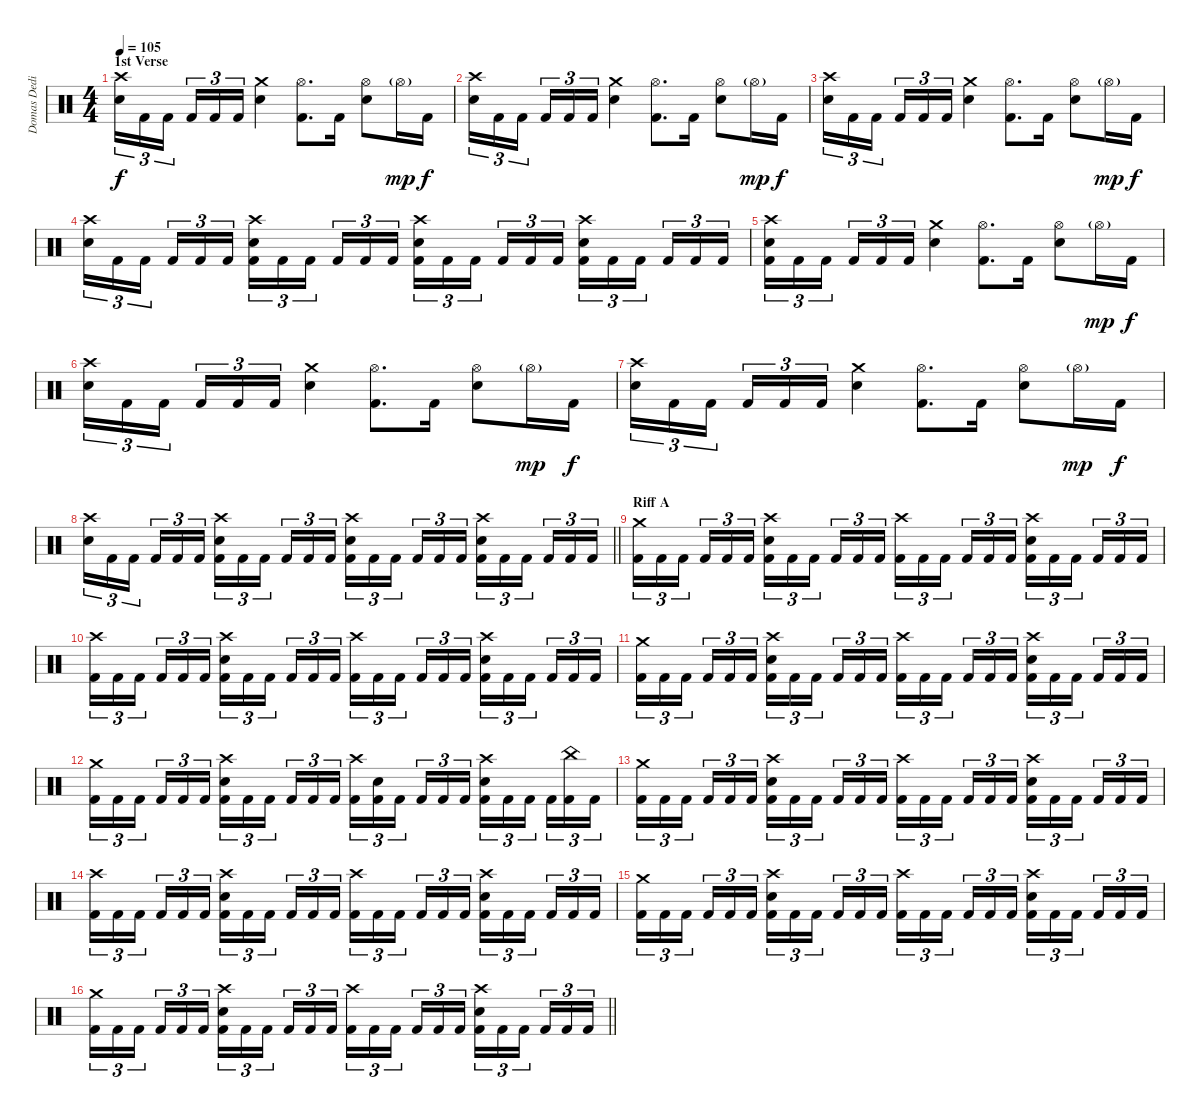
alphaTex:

\track ("Domas Dedinas" "Domas Dedi") {instrument percussion}
\staff {score}
\articulation defaults
\ts (4 4)
\section ("" "1st Verse")
\tempo 105
\clef neutral
\ks c
("Crash high (hit)" "Snare (hit) 2").16{tu (3 2) dy f} "Kick (hit) 2".16{tu (3 2)} "Kick (hit) 2".16{tu (3 2) beam splitsecondary} "Kick (hit) 2".16{tu (3 2)} "Kick (hit) 2".16{tu (3 2)} "Kick (hit) 2".16{tu (3 2)} ("Crash medium (hit)" "Snare (hit) 2").4 ("Hi-Hat (open)" "Kick (hit) 2").8{d} "Kick (hit) 2".16 ("Hi-Hat (open)" "Snare (hit) 2").8 "Hi-Hat (open)"{g}.16{dy mp} "Kick (hit) 2".16{dy f} |
("Crash high (hit)" "Snare (hit) 2").16{tu (3 2)} "Kick (hit) 2".16{tu (3 2)} "Kick (hit) 2".16{tu (3 2) beam splitsecondary} "Kick (hit) 2".16{tu (3 2)} "Kick (hit) 2".16{tu (3 2)} "Kick (hit) 2".16{tu (3 2)} ("Crash medium (hit)" "Snare (hit) 2").4 ("Hi-Hat (open)" "Kick (hit) 2").8{d} "Kick (hit) 2".16 ("Hi-Hat (open)" "Snare (hit) 2").8 "Hi-Hat (open)"{g}.16{dy mp} "Kick (hit) 2".16{dy f} |
("Crash high (hit)" "Snare (hit) 2").16{tu (3 2)} "Kick (hit) 2".16{tu (3 2)} "Kick (hit) 2".16{tu (3 2) beam splitsecondary} "Kick (hit) 2".16{tu (3 2)} "Kick (hit) 2".16{tu (3 2)} "Kick (hit) 2".16{tu (3 2)} ("Crash medium (hit)" "Snare (hit) 2").4 ("Hi-Hat (open)" "Kick (hit) 2").8{d} "Kick (hit) 2".16 ("Hi-Hat (open)" "Snare (hit) 2").8 "Hi-Hat (open)"{g}.16{dy mp} "Kick (hit) 2".16{dy f} |
("Crash high (hit)" "Snare (hit) 2").16{tu (3 2)} "Kick (hit) 2".16{tu (3 2)} "Kick (hit) 2".16{tu (3 2) beam splitsecondary} "Kick (hit) 2".16{tu (3 2)} "Kick (hit) 2".16{tu (3 2)} "Kick (hit) 2".16{tu (3 2)} ("Crash high (hit)" "Snare (hit) 2" "Kick (hit) 2").16{tu (3 2)} "Kick (hit) 2".16{tu (3 2)} "Kick (hit) 2".16{tu (3 2) beam splitsecondary} "Kick (hit) 2".16{tu (3 2)} "Kick (hit) 2".16{tu (3 2)} "Kick (hit) 2".16{tu (3 2)} ("Crash high (hit)" "Snare (hit) 2" "Kick (hit) 2").16{tu (3 2)} "Kick (hit) 2".16{tu (3 2)} "Kick (hit) 2".16{tu (3 2) beam splitsecondary} "Kick (hit) 2".16{tu (3 2)} "Kick (hit) 2".16{tu (3 2)} "Kick (hit) 2".16{tu (3 2)} ("Crash high (hit)" "Snare (hit) 2" "Kick (hit) 2").16{tu (3 2)} "Kick (hit) 2".16{tu (3 2)} "Kick (hit) 2".16{tu (3 2) beam splitsecondary} "Kick (hit) 2".16{tu (3 2)} "Kick (hit) 2".16{tu (3 2)} "Kick (hit) 2".16{tu (3 2)} |
("Crash high (hit)" "Snare (hit) 2" "Kick (hit) 2").16{tu (3 2)} "Kick (hit) 2".16{tu (3 2)} "Kick (hit) 2".16{tu (3 2) beam splitsecondary} "Kick (hit) 2".16{tu (3 2)} "Kick (hit) 2".16{tu (3 2)} "Kick (hit) 2".16{tu (3 2)} ("Crash medium (hit)" "Snare (hit) 2").4 ("Hi-Hat (open)" "Kick (hit) 2").8{d} "Kick (hit) 2".16 ("Hi-Hat (open)" "Snare (hit) 2").8 "Hi-Hat (open)"{g}.16{dy mp} "Kick (hit) 2".16{dy f} |
("Crash high (hit)" "Snare (hit) 2").16{tu (3 2)} "Kick (hit) 2".16{tu (3 2)} "Kick (hit) 2".16{tu (3 2) beam splitsecondary} "Kick (hit) 2".16{tu (3 2)} "Kick (hit) 2".16{tu (3 2)} "Kick (hit) 2".16{tu (3 2)} ("Crash medium (hit)" "Snare (hit) 2").4 ("Hi-Hat (open)" "Kick (hit) 2").8{d} "Kick (hit) 2".16 ("Hi-Hat (open)" "Snare (hit) 2").8 "Hi-Hat (open)"{g}.16{dy mp} "Kick (hit) 2".16{dy f} |
("Crash high (hit)" "Snare (hit) 2").16{tu (3 2)} "Kick (hit) 2".16{tu (3 2)} "Kick (hit) 2".16{tu (3 2) beam splitsecondary} "Kick (hit) 2".16{tu (3 2)} "Kick (hit) 2".16{tu (3 2)} "Kick (hit) 2".16{tu (3 2)} ("Crash medium (hit)" "Snare (hit) 2").4 ("Hi-Hat (open)" "Kick (hit) 2").8{d} "Kick (hit) 2".16 ("Hi-Hat (open)" "Snare (hit) 2").8 "Hi-Hat (open)"{g}.16{dy mp} "Kick (hit) 2".16{dy f} |
\barLineRight lightlight
("Crash high (hit)" "Snare (hit) 2").16{tu (3 2)} "Kick (hit) 2".16{tu (3 2)} "Kick (hit) 2".16{tu (3 2) beam splitsecondary} "Kick (hit) 2".16{tu (3 2)} "Kick (hit) 2".16{tu (3 2)} "Kick (hit) 2".16{tu (3 2)} ("Crash high (hit)" "Snare (hit) 2" "Kick (hit) 2").16{tu (3 2)} "Kick (hit) 2".16{tu (3 2)} "Kick (hit) 2".16{tu (3 2) beam splitsecondary} "Kick (hit) 2".16{tu (3 2)} "Kick (hit) 2".16{tu (3 2)} "Kick (hit) 2".16{tu (3 2)} ("Crash high (hit)" "Snare (hit) 2" "Kick (hit) 2").16{tu (3 2)} "Kick (hit) 2".16{tu (3 2)} "Kick (hit) 2".16{tu (3 2) beam splitsecondary} "Kick (hit) 2".16{tu (3 2)} "Kick (hit) 2".16{tu (3 2)} "Kick (hit) 2".16{tu (3 2)} ("Crash high (hit)" "Snare (hit) 2" "Kick (hit) 2").16{tu (3 2)} "Kick (hit) 2".16{tu (3 2)} "Kick (hit) 2".16{tu (3 2) beam splitsecondary} "Kick (hit) 2".16{tu (3 2)} "Kick (hit) 2".16{tu (3 2)} "Kick (hit) 2".16{tu (3 2)} |
\section ("" "Riff A")
("Crash medium (hit)" "Kick (hit) 2").16{tu (3 2)} "Kick (hit) 2".16{tu (3 2)} "Kick (hit) 2".16{tu (3 2) beam splitsecondary} "Kick (hit) 2".16{tu (3 2)} "Kick (hit) 2".16{tu (3 2)} "Kick (hit) 2".16{tu (3 2)} ("Crash high (hit)" "Snare (hit) 2" "Kick (hit) 2").16{tu (3 2)} "Kick (hit) 2".16{tu (3 2)} "Kick (hit) 2".16{tu (3 2) beam splitsecondary} "Kick (hit) 2".16{tu (3 2)} "Kick (hit) 2".16{tu (3 2)} "Kick (hit) 2".16{tu (3 2)} ("Crash high (hit)" "Kick (hit) 2").16{tu (3 2)} "Kick (hit) 2".16{tu (3 2)} "Kick (hit) 2".16{tu (3 2) beam splitsecondary} "Kick (hit) 2".16{tu (3 2)} "Kick (hit) 2".16{tu (3 2)} "Kick (hit) 2".16{tu (3 2)} ("Crash high (hit)" "Snare (hit) 2" "Kick (hit) 2").16{tu (3 2)} "Kick (hit) 2".16{tu (3 2)} "Kick (hit) 2".16{tu (3 2) beam splitsecondary} "Kick (hit) 2".16{tu (3 2)} "Kick (hit) 2".16{tu (3 2)} "Kick (hit) 2".16{tu (3 2)} |
("Crash high (hit)" "Kick (hit) 2").16{tu (3 2)} "Kick (hit) 2".16{tu (3 2)} "Kick (hit) 2".16{tu (3 2) beam splitsecondary} "Kick (hit) 2".16{tu (3 2)} "Kick (hit) 2".16{tu (3 2)} "Kick (hit) 2".16{tu (3 2)} ("Crash high (hit)" "Snare (hit) 2" "Kick (hit) 2").16{tu (3 2)} "Kick (hit) 2".16{tu (3 2)} "Kick (hit) 2".16{tu (3 2) beam splitsecondary} "Kick (hit) 2".16{tu (3 2)} "Kick (hit) 2".16{tu (3 2)} "Kick (hit) 2".16{tu (3 2)} ("Crash high (hit)" "Kick (hit) 2").16{tu (3 2)} "Kick (hit) 2".16{tu (3 2)} "Kick (hit) 2".16{tu (3 2) beam splitsecondary} "Kick (hit) 2".16{tu (3 2)} "Kick (hit) 2".16{tu (3 2)} "Kick (hit) 2".16{tu (3 2)} ("Crash high (hit)" "Snare (hit) 2" "Kick (hit) 2").16{tu (3 2)} "Kick (hit) 2".16{tu (3 2)} "Kick (hit) 2".16{tu (3 2) beam splitsecondary} "Kick (hit) 2".16{tu (3 2)} "Kick (hit) 2".16{tu (3 2)} "Kick (hit) 2".16{tu (3 2)} |
("Crash medium (hit)" "Kick (hit) 2").16{tu (3 2)} "Kick (hit) 2".16{tu (3 2)} "Kick (hit) 2".16{tu (3 2) beam splitsecondary} "Kick (hit) 2".16{tu (3 2)} "Kick (hit) 2".16{tu (3 2)} "Kick (hit) 2".16{tu (3 2)} ("Crash high (hit)" "Snare (hit) 2" "Kick (hit) 2").16{tu (3 2)} "Kick (hit) 2".16{tu (3 2)} "Kick (hit) 2".16{tu (3 2) beam splitsecondary} "Kick (hit) 2".16{tu (3 2)} "Kick (hit) 2".16{tu (3 2)} "Kick (hit) 2".16{tu (3 2)} ("Crash high (hit)" "Kick (hit) 2").16{tu (3 2)} "Kick (hit) 2".16{tu (3 2)} "Kick (hit) 2".16{tu (3 2) beam splitsecondary} "Kick (hit) 2".16{tu (3 2)} "Kick (hit) 2".16{tu (3 2)} "Kick (hit) 2".16{tu (3 2)} ("Crash high (hit)" "Snare (hit) 2" "Kick (hit) 2").16{tu (3 2)} "Kick (hit) 2".16{tu (3 2)} "Kick (hit) 2".16{tu (3 2) beam splitsecondary} "Kick (hit) 2".16{tu (3 2)} "Kick (hit) 2".16{tu (3 2)} "Kick (hit) 2".16{tu (3 2)} |
("Crash medium (hit)" "Kick (hit) 2").16{tu (3 2)} "Kick (hit) 2".16{tu (3 2)} "Kick (hit) 2".16{tu (3 2) beam splitsecondary} "Kick (hit) 2".16{tu (3 2)} "Kick (hit) 2".16{tu (3 2)} "Kick (hit) 2".16{tu (3 2)} ("Crash high (hit)" "Snare (hit) 2" "Kick (hit) 2").16{tu (3 2)} "Kick (hit) 2".16{tu (3 2)} "Kick (hit) 2".16{tu (3 2) beam splitsecondary} "Kick (hit) 2".16{tu (3 2)} "Kick (hit) 2".16{tu (3 2)} "Kick (hit) 2".16{tu (3 2)} ("Crash high (hit)" "Kick (hit) 2").16{tu (3 2)} ("Snare (hit) 2" "Kick (hit) 2").16{tu (3 2)} "Kick (hit) 2".16{tu (3 2) beam splitsecondary} "Kick (hit) 2".16{tu (3 2)} "Kick (hit) 2".16{tu (3 2)} "Kick (hit) 2".16{tu (3 2)} ("Crash high (hit)" "Snare (hit) 2" "Kick (hit) 2").16{tu (3 2)} "Kick (hit) 2".16{tu (3 2)} "Kick (hit) 2".16{tu (3 2) beam splitsecondary} "Kick (hit) 2".16{tu (3 2)} ("China (hit)" "Kick (hit) 2").16{tu (3 2)} "Kick (hit) 2".16{tu (3 2)} |
("Crash medium (hit)" "Kick (hit) 2").16{tu (3 2)} "Kick (hit) 2".16{tu (3 2)} "Kick (hit) 2".16{tu (3 2) beam splitsecondary} "Kick (hit) 2".16{tu (3 2)} "Kick (hit) 2".16{tu (3 2)} "Kick (hit) 2".16{tu (3 2)} ("Crash high (hit)" "Snare (hit) 2" "Kick (hit) 2").16{tu (3 2)} "Kick (hit) 2".16{tu (3 2)} "Kick (hit) 2".16{tu (3 2) beam splitsecondary} "Kick (hit) 2".16{tu (3 2)} "Kick (hit) 2".16{tu (3 2)} "Kick (hit) 2".16{tu (3 2)} ("Crash high (hit)" "Kick (hit) 2").16{tu (3 2)} "Kick (hit) 2".16{tu (3 2)} "Kick (hit) 2".16{tu (3 2) beam splitsecondary} "Kick (hit) 2".16{tu (3 2)} "Kick (hit) 2".16{tu (3 2)} "Kick (hit) 2".16{tu (3 2)} ("Crash high (hit)" "Snare (hit) 2" "Kick (hit) 2").16{tu (3 2)} "Kick (hit) 2".16{tu (3 2)} "Kick (hit) 2".16{tu (3 2) beam splitsecondary} "Kick (hit) 2".16{tu (3 2)} "Kick (hit) 2".16{tu (3 2)} "Kick (hit) 2".16{tu (3 2)} |
("Crash high (hit)" "Kick (hit) 2").16{tu (3 2)} "Kick (hit) 2".16{tu (3 2)} "Kick (hit) 2".16{tu (3 2) beam splitsecondary} "Kick (hit) 2".16{tu (3 2)} "Kick (hit) 2".16{tu (3 2)} "Kick (hit) 2".16{tu (3 2)} ("Crash high (hit)" "Snare (hit) 2" "Kick (hit) 2").16{tu (3 2)} "Kick (hit) 2".16{tu (3 2)} "Kick (hit) 2".16{tu (3 2) beam splitsecondary} "Kick (hit) 2".16{tu (3 2)} "Kick (hit) 2".16{tu (3 2)} "Kick (hit) 2".16{tu (3 2)} ("Crash high (hit)" "Kick (hit) 2").16{tu (3 2)} "Kick (hit) 2".16{tu (3 2)} "Kick (hit) 2".16{tu (3 2) beam splitsecondary} "Kick (hit) 2".16{tu (3 2)} "Kick (hit) 2".16{tu (3 2)} "Kick (hit) 2".16{tu (3 2)} ("Crash high (hit)" "Snare (hit) 2" "Kick (hit) 2").16{tu (3 2)} "Kick (hit) 2".16{tu (3 2)} "Kick (hit) 2".16{tu (3 2) beam splitsecondary} "Kick (hit) 2".16{tu (3 2)} "Kick (hit) 2".16{tu (3 2)} "Kick (hit) 2".16{tu (3 2)} |
("Crash medium (hit)" "Kick (hit) 2").16{tu (3 2)} "Kick (hit) 2".16{tu (3 2)} "Kick (hit) 2".16{tu (3 2) beam splitsecondary} "Kick (hit) 2".16{tu (3 2)} "Kick (hit) 2".16{tu (3 2)} "Kick (hit) 2".16{tu (3 2)} ("Crash high (hit)" "Snare (hit) 2" "Kick (hit) 2").16{tu (3 2)} "Kick (hit) 2".16{tu (3 2)} "Kick (hit) 2".16{tu (3 2) beam splitsecondary} "Kick (hit) 2".16{tu (3 2)} "Kick (hit) 2".16{tu (3 2)} "Kick (hit) 2".16{tu (3 2)} ("Crash high (hit)" "Kick (hit) 2").16{tu (3 2)} "Kick (hit) 2".16{tu (3 2)} "Kick (hit) 2".16{tu (3 2) beam splitsecondary} "Kick (hit) 2".16{tu (3 2)} "Kick (hit) 2".16{tu (3 2)} "Kick (hit) 2".16{tu (3 2)} ("Crash high (hit)" "Snare (hit) 2" "Kick (hit) 2").16{tu (3 2)} "Kick (hit) 2".16{tu (3 2)} "Kick (hit) 2".16{tu (3 2) beam splitsecondary} "Kick (hit) 2".16{tu (3 2)} "Kick (hit) 2".16{tu (3 2)} "Kick (hit) 2".16{tu (3 2)} |
\barLineRight lightlight
("Crash medium (hit)" "Kick (hit) 2").16{tu (3 2)} "Kick (hit) 2".16{tu (3 2)} "Kick (hit) 2".16{tu (3 2) beam splitsecondary} "Kick (hit) 2".16{tu (3 2)} "Kick (hit) 2".16{tu (3 2)} "Kick (hit) 2".16{tu (3 2)} ("Crash high (hit)" "Snare (hit) 2" "Kick (hit) 2").16{tu (3 2)} "Kick (hit) 2".16{tu (3 2)} "Kick (hit) 2".16{tu (3 2) beam splitsecondary} "Kick (hit) 2".16{tu (3 2)} "Kick (hit) 2".16{tu (3 2)} "Kick (hit) 2".16{tu (3 2)} ("Crash high (hit)" "Kick (hit) 2").16{tu (3 2)} "Kick (hit) 2".16{tu (3 2)} "Kick (hit) 2".16{tu (3 2) beam splitsecondary} "Kick (hit) 2".16{tu (3 2)} "Kick (hit) 2".16{tu (3 2)} "Kick (hit) 2".16{tu (3 2)} ("Crash high (hit)" "Snare (hit) 2" "Kick (hit) 2").16{tu (3 2)} "Kick (hit) 2".16{tu (3 2)} "Kick (hit) 2".16{tu (3 2) beam splitsecondary} "Kick (hit) 2".16{tu (3 2)} "Kick (hit) 2".16{tu (3 2)} "Kick (hit) 2".16{tu (3 2)}
